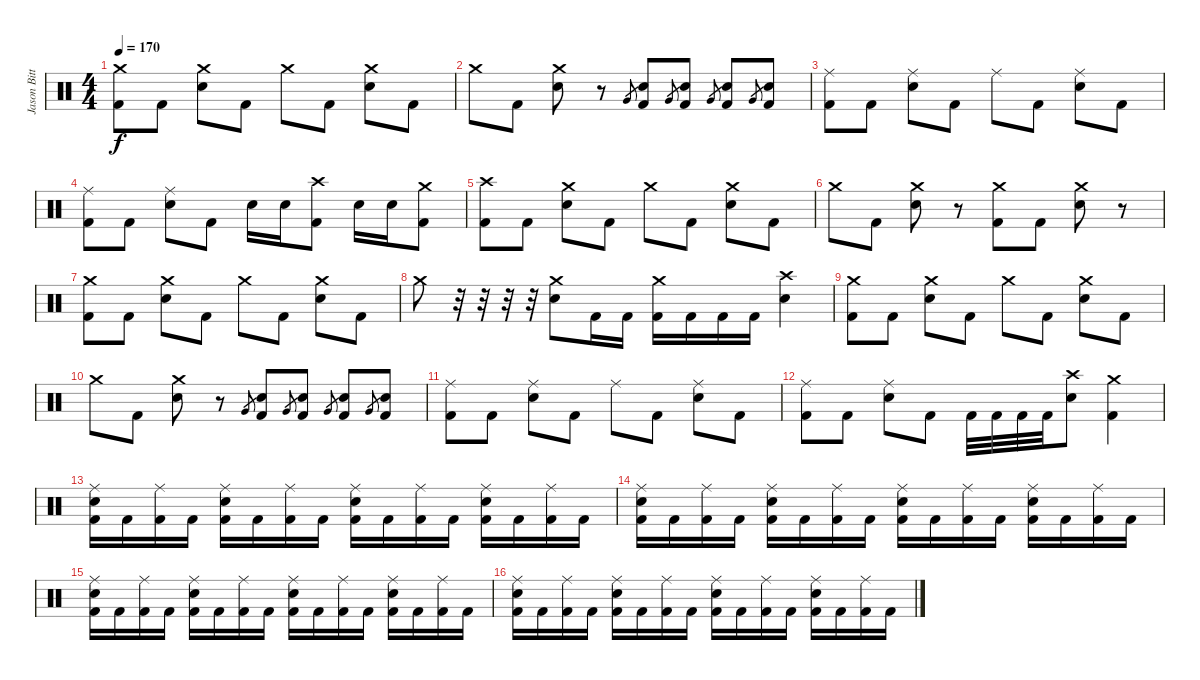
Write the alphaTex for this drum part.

\track ("Jason Bittner" "Jason Bitt") {instrument percussion}
\staff {score}
\articulation defaults
\ts (4 4)
\tempo 170
\clef neutral
\ks c
("Crash medium (hit)" "Kick (hit) 2").8{dy f} "Kick (hit) 2".8 ("Crash medium (hit)" "Electric Snare (hit)").8 "Kick (hit) 2".8 "Crash medium (hit)".8 "Kick (hit) 2".8 ("Crash medium (hit)" "Electric Snare (hit)").8 "Kick (hit) 2".8 |
"Crash medium (hit)".8 "Kick (hit) 2".8 ("Crash medium (hit)" "Electric Snare (hit)").8 r.8 "Very Low Tom (hit)".8{gr} ("Kick (hit) 2" "Electric Snare (hit)").8 "Very Low Tom (hit)".8{gr} ("Kick (hit) 2" "Electric Snare (hit)").8 "Very Low Tom (hit)".8{gr} ("Kick (hit) 2" "Electric Snare (hit)").8 "Very Low Tom (hit)".8{gr} ("Kick (hit) 2" "Electric Snare (hit)").8 |
("Ride (middle)" "Kick (hit) 2").8 "Kick (hit) 2".8 ("Ride (middle)" "Electric Snare (hit)").8 "Kick (hit) 2".8 "Ride (middle)".8 "Kick (hit) 2".8 ("Ride (middle)" "Electric Snare (hit)").8 "Kick (hit) 2".8 |
("Ride (middle)" "Kick (hit) 2").8 "Kick (hit) 2".8 ("Ride (middle)" "Electric Snare (hit)").8 "Kick (hit) 2".8 "Electric Snare (hit)".16 "Electric Snare (hit)".16 ("Crash high (hit)" "Kick (hit) 2").8 "Electric Snare (hit)".16 "Electric Snare (hit)".16 ("Crash medium (hit)" "Kick (hit) 2").8 |
("Crash high (hit)" "Kick (hit) 2").8 "Kick (hit) 2".8 ("Crash medium (hit)" "Electric Snare (hit)").8 "Kick (hit) 2".8 "Crash medium (hit)".8 "Kick (hit) 2".8 ("Crash medium (hit)" "Electric Snare (hit)").8 "Kick (hit) 2".8 |
"Crash medium (hit)".8 "Kick (hit) 2".8 ("Crash medium (hit)" "Electric Snare (hit)").8 r.8 ("Crash medium (hit)" "Kick (hit) 2").8 "Kick (hit) 2".8 ("Crash medium (hit)" "Electric Snare (hit)").8 r.8 |
("Crash medium (hit)" "Kick (hit) 2").8 "Kick (hit) 2".8 ("Crash medium (hit)" "Electric Snare (hit)").8 "Kick (hit) 2".8 "Crash medium (hit)".8 "Kick (hit) 2".8 ("Crash medium (hit)" "Electric Snare (hit)").8 "Kick (hit) 2".8 |
"Crash medium (hit)".8 r.32 r.32 r.32 r.32 ("Crash medium (hit)" "Electric Snare (hit)").8 "Kick (hit) 2".16 "Kick (hit) 2".16 ("Crash medium (hit)" "Kick (hit) 2").16 "Kick (hit) 2".16 "Kick (hit) 2".16 "Kick (hit) 2".16 ("Crash high (hit)" "Electric Snare (hit)").4 |
("Crash medium (hit)" "Kick (hit) 2").8 "Kick (hit) 2".8 ("Crash medium (hit)" "Electric Snare (hit)").8 "Kick (hit) 2".8 "Crash medium (hit)".8 "Kick (hit) 2".8 ("Crash medium (hit)" "Electric Snare (hit)").8 "Kick (hit) 2".8 |
"Crash medium (hit)".8 "Kick (hit) 2".8 ("Crash medium (hit)" "Electric Snare (hit)").8 r.8 "Very Low Tom (hit)".8{gr} ("Kick (hit) 2" "Electric Snare (hit)").8 "Very Low Tom (hit)".8{gr} ("Kick (hit) 2" "Electric Snare (hit)").8 "Very Low Tom (hit)".8{gr} ("Kick (hit) 2" "Electric Snare (hit)").8 "Very Low Tom (hit)".8{gr} ("Kick (hit) 2" "Electric Snare (hit)").8 |
("Ride (middle)" "Kick (hit) 2").8 "Kick (hit) 2".8 ("Ride (middle)" "Electric Snare (hit)").8 "Kick (hit) 2".8 "Ride (middle)".8 "Kick (hit) 2".8 ("Ride (middle)" "Electric Snare (hit)").8 "Kick (hit) 2".8 |
("Ride (middle)" "Kick (hit) 2").8 "Kick (hit) 2".8 ("Ride (middle)" "Electric Snare (hit)").8 "Kick (hit) 2".8 "Kick (hit) 2".32 "Kick (hit) 2".32 "Kick (hit) 2".32 "Kick (hit) 2".32 ("Crash high (hit)" "Electric Snare (hit)").8 ("Crash medium (hit)" "Kick (hit) 2").4 |
("Ride (middle)" "Electric Snare (hit)" "Kick (hit) 2").16 "Kick (hit) 2".16 ("Ride (middle)" "Kick (hit) 2").16 "Kick (hit) 2".16 ("Ride (middle)" "Electric Snare (hit)" "Kick (hit) 2").16 "Kick (hit) 2".16 ("Ride (middle)" "Kick (hit) 2").16 "Kick (hit) 2".16 ("Ride (middle)" "Electric Snare (hit)" "Kick (hit) 2").16 "Kick (hit) 2".16 ("Ride (middle)" "Kick (hit) 2").16 "Kick (hit) 2".16 ("Ride (middle)" "Electric Snare (hit)" "Kick (hit) 2").16 "Kick (hit) 2".16 ("Ride (middle)" "Kick (hit) 2").16 "Kick (hit) 2".16 |
("Ride (middle)" "Electric Snare (hit)" "Kick (hit) 2").16 "Kick (hit) 2".16 ("Ride (middle)" "Kick (hit) 2").16 "Kick (hit) 2".16 ("Ride (middle)" "Electric Snare (hit)" "Kick (hit) 2").16 "Kick (hit) 2".16 ("Ride (middle)" "Kick (hit) 2").16 "Kick (hit) 2".16 ("Ride (middle)" "Electric Snare (hit)" "Kick (hit) 2").16 "Kick (hit) 2".16 ("Ride (middle)" "Kick (hit) 2").16 "Kick (hit) 2".16 ("Ride (middle)" "Electric Snare (hit)" "Kick (hit) 2").16 "Kick (hit) 2".16 ("Ride (middle)" "Kick (hit) 2").16 "Kick (hit) 2".16 |
("Ride (middle)" "Electric Snare (hit)" "Kick (hit) 2").16 "Kick (hit) 2".16 ("Ride (middle)" "Kick (hit) 2").16 "Kick (hit) 2".16 ("Ride (middle)" "Electric Snare (hit)" "Kick (hit) 2").16 "Kick (hit) 2".16 ("Ride (middle)" "Kick (hit) 2").16 "Kick (hit) 2".16 ("Ride (middle)" "Electric Snare (hit)" "Kick (hit) 2").16 "Kick (hit) 2".16 ("Ride (middle)" "Kick (hit) 2").16 "Kick (hit) 2".16 ("Ride (middle)" "Electric Snare (hit)" "Kick (hit) 2").16 "Kick (hit) 2".16 ("Ride (middle)" "Kick (hit) 2").16 "Kick (hit) 2".16 |
("Ride (middle)" "Electric Snare (hit)" "Kick (hit) 2").16 "Kick (hit) 2".16 ("Ride (middle)" "Kick (hit) 2").16 "Kick (hit) 2".16 ("Ride (middle)" "Electric Snare (hit)" "Kick (hit) 2").16 "Kick (hit) 2".16 ("Ride (middle)" "Kick (hit) 2").16 "Kick (hit) 2".16 ("Ride (middle)" "Electric Snare (hit)" "Kick (hit) 2").16 "Kick (hit) 2".16 ("Ride (middle)" "Kick (hit) 2").16 "Kick (hit) 2".16 ("Ride (middle)" "Electric Snare (hit)" "Kick (hit) 2").16 "Kick (hit) 2".16 ("Ride (middle)" "Kick (hit) 2").16 "Kick (hit) 2".16
